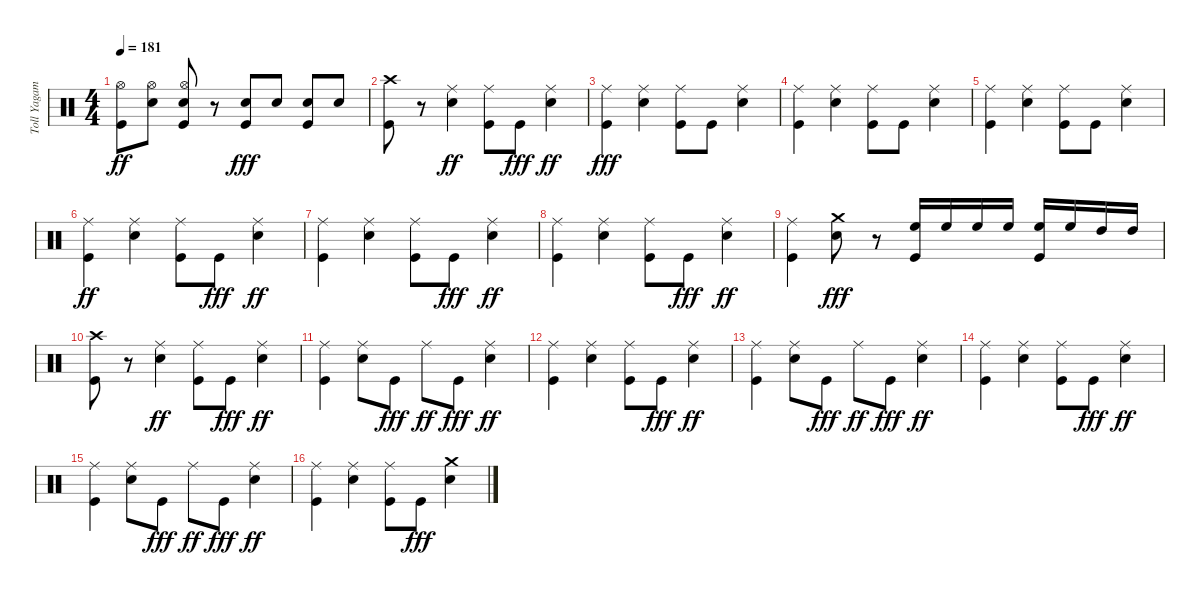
\track ("Toll Yagami" "Toll Yagam") {instrument percussion}
\staff {score}
\articulation defaults
\ts (4 4)
\tempo 181
\clef neutral
\ks c
("Kick (hit)" "Hi-Hat (open)").8{dy ff} ("Snare (hit) 2" "Hi-Hat (open)").8 ("Kick (hit)" "Snare (hit) 2" "Hi-Hat (open)").8 r.8 ("Snare (hit) 2" "Kick (hit)").8{dy fff} "Snare (hit) 2".8 ("Snare (hit) 2" "Kick (hit)").8 "Snare (hit) 2".8 |
("Kick (hit)" "Crash high (hit)").8 r.8 ("Snare (hit) 2" "Ride (middle)").4{dy ff} ("Kick (hit)" "Ride (middle)").8 "Kick (hit)".8{dy fff} ("Snare (hit) 2" "Ride (middle)").4{dy ff} |
("Ride (middle)" "Kick (hit)").4{dy fff} ("Ride (middle)" "Snare (hit) 2").4 ("Ride (middle)" "Kick (hit)").8 "Kick (hit)".8 ("Ride (middle)" "Snare (hit) 2").4 |
("Ride (middle)" "Kick (hit)").4 ("Ride (middle)" "Snare (hit) 2").4 ("Ride (middle)" "Kick (hit)").8 "Kick (hit)".8 ("Ride (middle)" "Snare (hit) 2").4 |
("Ride (middle)" "Kick (hit)").4 ("Ride (middle)" "Snare (hit) 2").4 ("Ride (middle)" "Kick (hit)").8 "Kick (hit)".8 ("Ride (middle)" "Snare (hit) 2").4 |
("Kick (hit)" "Ride (middle)").4{dy ff} ("Snare (hit) 2" "Ride (middle)").4 ("Kick (hit)" "Ride (middle)").8 "Kick (hit)".8{dy fff} ("Snare (hit) 2" "Ride (middle)").4{dy ff} |
("Kick (hit)" "Ride (middle)").4 ("Snare (hit) 2" "Ride (middle)").4 ("Kick (hit)" "Ride (middle)").8 "Kick (hit)".8{dy fff} ("Snare (hit) 2" "Ride (middle)").4{dy ff} |
("Kick (hit)" "Ride (middle)").4 ("Snare (hit) 2" "Ride (middle)").4 ("Kick (hit)" "Ride (middle)").8 "Kick (hit)".8{dy fff} ("Snare (hit) 2" "Ride (middle)").4{dy ff} |
("Kick (hit)" "Ride (middle)").4 ("Crash medium (hit)" "Snare (hit) 2").8{dy fff} r.8 ("Kick (hit)" "High Floor Tom (hit)").16 "High Floor Tom (hit)".16 "High Floor Tom (hit)".16 "High Floor Tom (hit)".16 ("Kick (hit)" "High Floor Tom (hit)").16 "High Floor Tom (hit)".16 "High Tom (hit)".16 "High Tom (hit)".16 |
("Kick (hit)" "Crash high (hit)").8 r.8 ("Snare (hit) 2" "Ride (middle)").4{dy ff} ("Kick (hit)" "Ride (middle)").8 "Kick (hit)".8{dy fff} ("Snare (hit) 2" "Ride (middle)").4{dy ff} |
("Kick (hit)" "Ride (middle)").4 ("Snare (hit) 2" "Ride (middle)").8 "Kick (hit)".8{dy fff} "Ride (middle)".8{dy ff} "Kick (hit)".8{dy fff} ("Snare (hit) 2" "Ride (middle)").4{dy ff} |
("Kick (hit)" "Ride (middle)").4 ("Snare (hit) 2" "Ride (middle)").4 ("Kick (hit)" "Ride (middle)").8 "Kick (hit)".8{dy fff} ("Snare (hit) 2" "Ride (middle)").4{dy ff} |
("Kick (hit)" "Ride (middle)").4 ("Snare (hit) 2" "Ride (middle)").8 "Kick (hit)".8{dy fff} "Ride (middle)".8{dy ff} "Kick (hit)".8{dy fff} ("Snare (hit) 2" "Ride (middle)").4{dy ff} |
("Kick (hit)" "Ride (middle)").4 ("Snare (hit) 2" "Ride (middle)").4 ("Kick (hit)" "Ride (middle)").8 "Kick (hit)".8{dy fff} ("Snare (hit) 2" "Ride (middle)").4{dy ff} |
("Kick (hit)" "Ride (middle)").4 ("Snare (hit) 2" "Ride (middle)").8 "Kick (hit)".8{dy fff} "Ride (middle)".8{dy ff} "Kick (hit)".8{dy fff} ("Snare (hit) 2" "Ride (middle)").4{dy ff} |
("Kick (hit)" "Ride (middle)").4 ("Snare (hit) 2" "Ride (middle)").4 ("Kick (hit)" "Ride (middle)").8 "Kick (hit)".8{dy fff} ("Crash medium (hit)" "Snare (hit) 2").4
